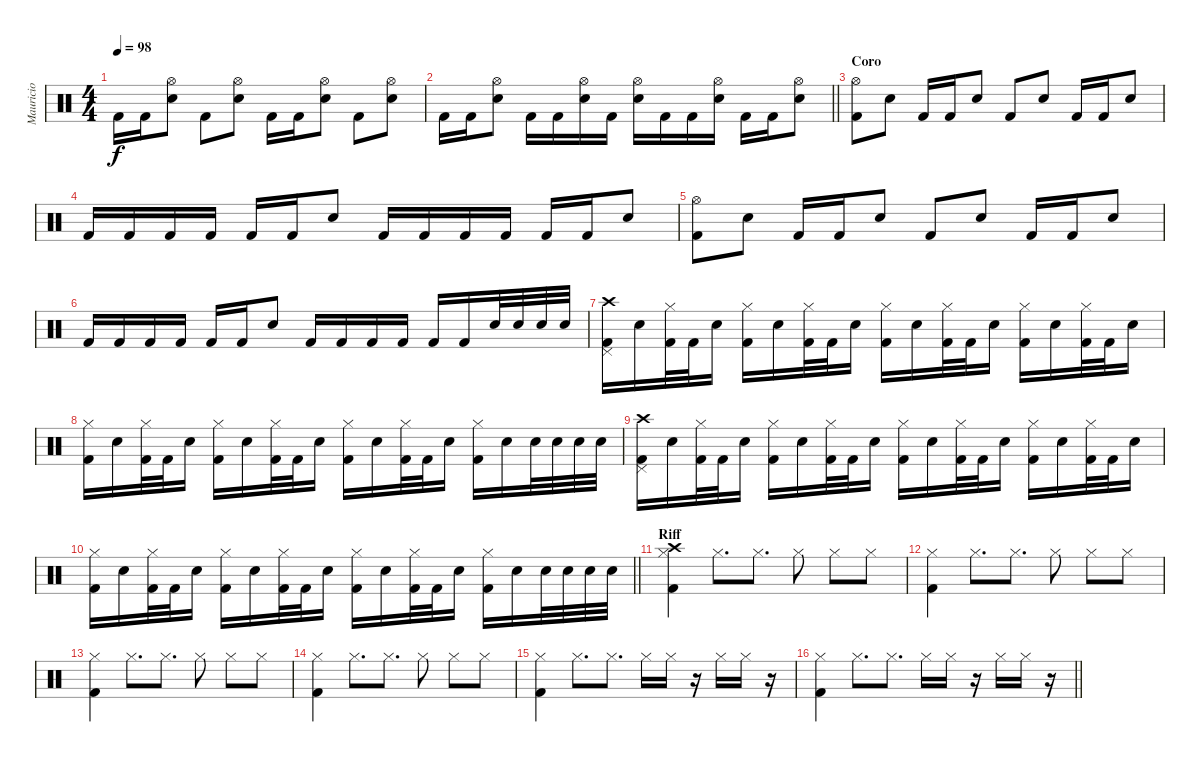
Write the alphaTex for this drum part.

\track ("Mauricio" "Mauricio") {instrument percussion}
\staff {score}
\articulation defaults
\ts (4 4)
\tempo 98
\clef neutral
\ks c "Kick (hit) 2".16{dy f} "Kick (hit) 2".16
("Hi-Hat (open)" "Electric Snare (hit)").8 "Kick (hit) 2".8 ("Hi-Hat (open)" "Electric Snare (hit)").8 "Kick (hit) 2".16 "Kick (hit) 2".16 ("Hi-Hat (open)" "Electric Snare (hit)").8 "Kick (hit) 2".8 ("Hi-Hat (open)" "Electric Snare (hit)").8 |
\barLineRight lightlight "Kick (hit) 2".16 "Kick (hit) 2".16
("Hi-Hat (open)" "Electric Snare (hit)").8 "Kick (hit) 2".16 "Kick (hit) 2".16 ("Hi-Hat (open)" "Electric Snare (hit)").16 "Kick (hit) 2".16 ("Hi-Hat (open)" "Electric Snare (hit)").16 "Kick (hit) 2".16 "Kick (hit) 2".16 ("Hi-Hat (open)" "Electric Snare (hit)").16 "Kick (hit) 2".16 "Kick (hit) 2".16 ("Hi-Hat (open)" "Electric Snare (hit)").8 |
\section ("" "Coro")
("Hi-Hat (open)" "Kick (hit) 2").8 "Electric Snare (hit)".8 "Kick (hit) 2".16 "Kick (hit) 2".16 "Electric Snare (hit)".8 "Kick (hit) 2".8 "Electric Snare (hit)".8 "Kick (hit) 2".16 "Kick (hit) 2".16 "Electric Snare (hit)".8 |
"Kick (hit) 2".16 "Kick (hit) 2".16 "Kick (hit) 2".16 "Kick (hit) 2".16 "Kick (hit) 2".16 "Kick (hit) 2".16 "Electric Snare (hit)".8 "Kick (hit) 2".16 "Kick (hit) 2".16 "Kick (hit) 2".16 "Kick (hit) 2".16 "Kick (hit) 2".16 "Kick (hit) 2".16 "Electric Snare (hit)".8 |
("Hi-Hat (open)" "Kick (hit) 2").8 "Electric Snare (hit)".8 "Kick (hit) 2".16 "Kick (hit) 2".16 "Electric Snare (hit)".8 "Kick (hit) 2".8 "Electric Snare (hit)".8 "Kick (hit) 2".16 "Kick (hit) 2".16 "Electric Snare (hit)".8 |
"Kick (hit) 2".16 "Kick (hit) 2".16 "Kick (hit) 2".16 "Kick (hit) 2".16 "Kick (hit) 2".16 "Kick (hit) 2".16 "Electric Snare (hit)".8 "Kick (hit) 2".16 "Kick (hit) 2".16 "Kick (hit) 2".16 "Kick (hit) 2".16 "Kick (hit) 2".16 "Kick (hit) 2".16 "Electric Snare (hit)".32 "Electric Snare (hit)".32 "Electric Snare (hit)".32 "Electric Snare (hit)".32 |
("Crash high (hit)" "Pedal Hi-Hat (hit)" "Kick (hit) 2").16 "Electric Snare (hit)".16 ("Hi-Hat (closed)" "Kick (hit) 2").32 "Kick (hit) 2".32 "Electric Snare (hit)".16 ("Hi-Hat (closed)" "Kick (hit) 2").16 "Electric Snare (hit)".16 ("Hi-Hat (closed)" "Kick (hit) 2").32 "Kick (hit) 2".32 "Electric Snare (hit)".16 ("Hi-Hat (closed)" "Kick (hit) 2").16 "Electric Snare (hit)".16 ("Hi-Hat (closed)" "Kick (hit) 2").32 "Kick (hit) 2".32 "Electric Snare (hit)".16 ("Hi-Hat (closed)" "Kick (hit) 2").16 "Electric Snare (hit)".16 ("Hi-Hat (closed)" "Kick (hit) 2").32 "Kick (hit) 2".32 "Electric Snare (hit)".16 |
("Hi-Hat (closed)" "Kick (hit) 2").16 "Electric Snare (hit)".16 ("Hi-Hat (closed)" "Kick (hit) 2").32 "Kick (hit) 2".32 "Electric Snare (hit)".16 ("Hi-Hat (closed)" "Kick (hit) 2").16 "Electric Snare (hit)".16 ("Hi-Hat (closed)" "Kick (hit) 2").32 "Kick (hit) 2".32 "Electric Snare (hit)".16 ("Hi-Hat (closed)" "Kick (hit) 2").16 "Electric Snare (hit)".16 ("Hi-Hat (closed)" "Kick (hit) 2").32 "Kick (hit) 2".32 "Electric Snare (hit)".16 ("Hi-Hat (closed)" "Kick (hit) 2").16 "Electric Snare (hit)".16 "Electric Snare (hit)".32 "Electric Snare (hit)".32 "Electric Snare (hit)".32 "Electric Snare (hit)".32 |
("Crash high (hit)" "Pedal Hi-Hat (hit)" "Kick (hit) 2").16 "Electric Snare (hit)".16 ("Hi-Hat (closed)" "Kick (hit) 2").32 "Kick (hit) 2".32 "Electric Snare (hit)".16 ("Hi-Hat (closed)" "Kick (hit) 2").16 "Electric Snare (hit)".16 ("Hi-Hat (closed)" "Kick (hit) 2").32 "Kick (hit) 2".32 "Electric Snare (hit)".16 ("Hi-Hat (closed)" "Kick (hit) 2").16 "Electric Snare (hit)".16 ("Hi-Hat (closed)" "Kick (hit) 2").32 "Kick (hit) 2".32 "Electric Snare (hit)".16 ("Hi-Hat (closed)" "Kick (hit) 2").16 "Electric Snare (hit)".16 ("Hi-Hat (closed)" "Kick (hit) 2").32 "Kick (hit) 2".32 "Electric Snare (hit)".16 |
\barLineRight lightlight
("Hi-Hat (closed)" "Kick (hit) 2").16 "Electric Snare (hit)".16 ("Hi-Hat (closed)" "Kick (hit) 2").32 "Kick (hit) 2".32 "Electric Snare (hit)".16 ("Hi-Hat (closed)" "Kick (hit) 2").16 "Electric Snare (hit)".16 ("Hi-Hat (closed)" "Kick (hit) 2").32 "Kick (hit) 2".32 "Electric Snare (hit)".16 ("Hi-Hat (closed)" "Kick (hit) 2").16 "Electric Snare (hit)".16 ("Hi-Hat (closed)" "Kick (hit) 2").32 "Kick (hit) 2".32 "Electric Snare (hit)".16 ("Hi-Hat (closed)" "Kick (hit) 2").16 "Electric Snare (hit)".16 "Electric Snare (hit)".32 "Electric Snare (hit)".32 "Electric Snare (hit)".32 "Electric Snare (hit)".32 |
\section ("" "Riff")
("Hi-Hat (closed)" "Crash high (hit)" "Kick (hit) 2").4 "Hi-Hat (closed)".8{d} "Hi-Hat (closed)".8{d} "Hi-Hat (closed)".8 "Hi-Hat (closed)".8 "Hi-Hat (closed)".8 |
("Hi-Hat (closed)" "Kick (hit) 2").4 "Hi-Hat (closed)".8{d} "Hi-Hat (closed)".8{d} "Hi-Hat (closed)".8 "Hi-Hat (closed)".8 "Hi-Hat (closed)".8 |
("Hi-Hat (closed)" "Kick (hit) 2").4 "Hi-Hat (closed)".8{d} "Hi-Hat (closed)".8{d} "Hi-Hat (closed)".8 "Hi-Hat (closed)".8 "Hi-Hat (closed)".8 |
("Hi-Hat (closed)" "Kick (hit) 2").4 "Hi-Hat (closed)".8{d} "Hi-Hat (closed)".8{d} "Hi-Hat (closed)".8 "Hi-Hat (closed)".8 "Hi-Hat (closed)".8 |
("Hi-Hat (closed)" "Kick (hit) 2").4 "Hi-Hat (closed)".8{d} "Hi-Hat (closed)".8{d} "Hi-Hat (closed)".16 "Hi-Hat (closed)".16 r.16 "Hi-Hat (closed)".16 "Hi-Hat (closed)".16 r.16 |
\barLineRight lightlight
("Hi-Hat (closed)" "Kick (hit) 2").4 "Hi-Hat (closed)".8{d} "Hi-Hat (closed)".8{d} "Hi-Hat (closed)".16 "Hi-Hat (closed)".16 r.16 "Hi-Hat (closed)".16 "Hi-Hat (closed)".16 r.16
